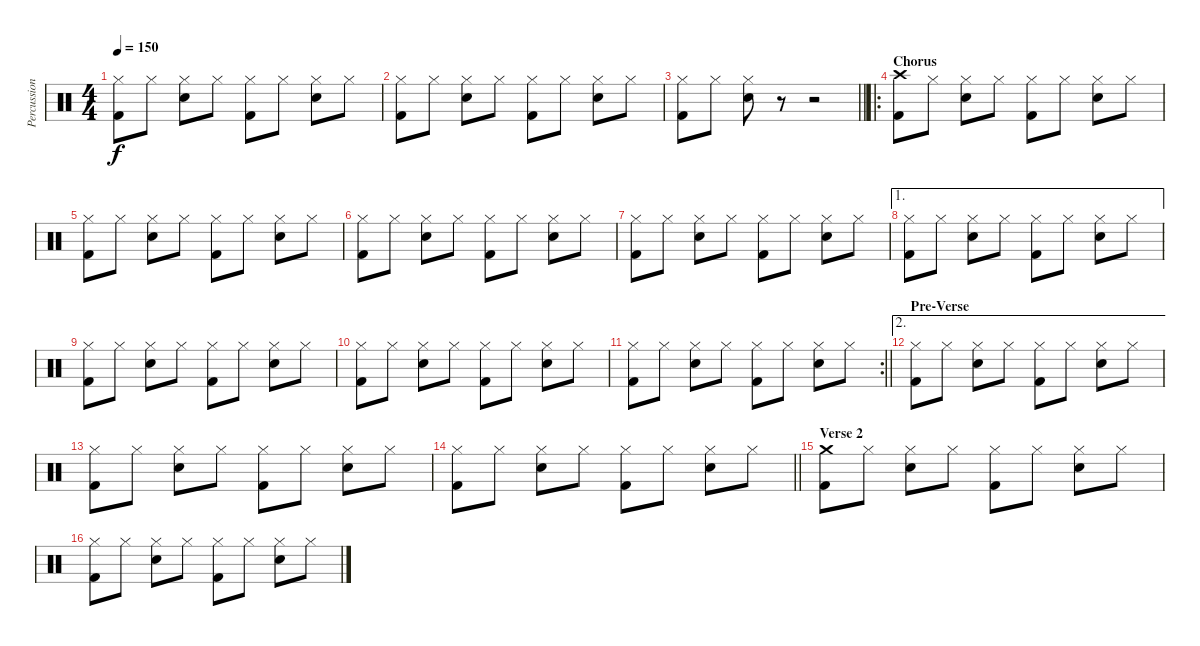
\track ("Percussion" "Percussion") {instrument percussion}
\staff {score}
\articulation defaults
\ts (4 4)
\tempo 150
\clef neutral
\ks c
("Hi-Hat (closed)" "Kick (hit) 2").8{dy f} "Hi-Hat (closed)".8 ("Hi-Hat (closed)" "Snare (hit) 2").8 "Hi-Hat (closed)".8 ("Hi-Hat (closed)" "Kick (hit) 2").8 "Hi-Hat (closed)".8 ("Hi-Hat (closed)" "Snare (hit) 2").8 "Hi-Hat (closed)".8 |
("Hi-Hat (closed)" "Kick (hit) 2").8 "Hi-Hat (closed)".8 ("Hi-Hat (closed)" "Snare (hit) 2").8 "Hi-Hat (closed)".8 ("Hi-Hat (closed)" "Kick (hit) 2").8 "Hi-Hat (closed)".8 ("Hi-Hat (closed)" "Snare (hit) 2").8 "Hi-Hat (closed)".8 |
\barLineRight lightlight
("Hi-Hat (closed)" "Kick (hit) 2").8 "Hi-Hat (closed)".8 ("Hi-Hat (closed)" "Snare (hit) 2").8 r.8 r.2 |
\ro
\section ("" "Chorus")
("Crash high (hit)" "Kick (hit) 2").8 "Hi-Hat (closed)".8 ("Hi-Hat (closed)" "Snare (hit) 2").8 "Hi-Hat (closed)".8 ("Hi-Hat (closed)" "Kick (hit) 2").8 "Hi-Hat (closed)".8 ("Hi-Hat (closed)" "Snare (hit) 2").8 "Hi-Hat (closed)".8 |
("Hi-Hat (closed)" "Kick (hit) 2").8 "Hi-Hat (closed)".8 ("Hi-Hat (closed)" "Snare (hit) 2").8 "Hi-Hat (closed)".8 ("Hi-Hat (closed)" "Kick (hit) 2").8 "Hi-Hat (closed)".8 ("Hi-Hat (closed)" "Snare (hit) 2").8 "Hi-Hat (closed)".8 |
("Hi-Hat (closed)" "Kick (hit) 2").8 "Hi-Hat (closed)".8 ("Hi-Hat (closed)" "Snare (hit) 2").8 "Hi-Hat (closed)".8 ("Hi-Hat (closed)" "Kick (hit) 2").8 "Hi-Hat (closed)".8 ("Hi-Hat (closed)" "Snare (hit) 2").8 "Hi-Hat (closed)".8 |
("Hi-Hat (closed)" "Kick (hit) 2").8 "Hi-Hat (closed)".8 ("Hi-Hat (closed)" "Snare (hit) 2").8 "Hi-Hat (closed)".8 ("Hi-Hat (closed)" "Kick (hit) 2").8 "Hi-Hat (closed)".8 ("Hi-Hat (closed)" "Snare (hit) 2").8 "Hi-Hat (closed)".8 |
\ae 1
("Hi-Hat (closed)" "Kick (hit) 2").8 "Hi-Hat (closed)".8 ("Hi-Hat (closed)" "Snare (hit) 2").8 "Hi-Hat (closed)".8 ("Hi-Hat (closed)" "Kick (hit) 2").8 "Hi-Hat (closed)".8 ("Hi-Hat (closed)" "Snare (hit) 2").8 "Hi-Hat (closed)".8 |
("Hi-Hat (closed)" "Kick (hit) 2").8 "Hi-Hat (closed)".8 ("Hi-Hat (closed)" "Snare (hit) 2").8 "Hi-Hat (closed)".8 ("Hi-Hat (closed)" "Kick (hit) 2").8 "Hi-Hat (closed)".8 ("Hi-Hat (closed)" "Snare (hit) 2").8 "Hi-Hat (closed)".8 |
("Hi-Hat (closed)" "Kick (hit) 2").8 "Hi-Hat (closed)".8 ("Hi-Hat (closed)" "Snare (hit) 2").8 "Hi-Hat (closed)".8 ("Hi-Hat (closed)" "Kick (hit) 2").8 "Hi-Hat (closed)".8 ("Hi-Hat (closed)" "Snare (hit) 2").8 "Hi-Hat (closed)".8 |
\rc 2
\barLineRight lightlight
("Hi-Hat (closed)" "Kick (hit) 2").8 "Hi-Hat (closed)".8 ("Hi-Hat (closed)" "Snare (hit) 2").8 "Hi-Hat (closed)".8 ("Hi-Hat (closed)" "Kick (hit) 2").8 "Hi-Hat (closed)".8 ("Hi-Hat (closed)" "Snare (hit) 2").8 "Hi-Hat (closed)".8 |
\ae 2
\section ("" "Pre-Verse")
("Hi-Hat (closed)" "Kick (hit) 2").8 "Hi-Hat (closed)".8 ("Hi-Hat (closed)" "Snare (hit) 2").8 "Hi-Hat (closed)".8 ("Hi-Hat (closed)" "Kick (hit) 2").8 "Hi-Hat (closed)".8 ("Hi-Hat (closed)" "Snare (hit) 2").8 "Hi-Hat (closed)".8 |
("Hi-Hat (closed)" "Kick (hit) 2").8 "Hi-Hat (closed)".8 ("Hi-Hat (closed)" "Snare (hit) 2").8 "Hi-Hat (closed)".8 ("Hi-Hat (closed)" "Kick (hit) 2").8 "Hi-Hat (closed)".8 ("Hi-Hat (closed)" "Snare (hit) 2").8 "Hi-Hat (closed)".8 |
\barLineRight lightlight
("Hi-Hat (closed)" "Kick (hit) 2").8 "Hi-Hat (closed)".8 ("Hi-Hat (closed)" "Snare (hit) 2").8 "Hi-Hat (closed)".8 ("Hi-Hat (closed)" "Kick (hit) 2").8 "Hi-Hat (closed)".8 ("Hi-Hat (closed)" "Snare (hit) 2").8 "Hi-Hat (closed)".8 |
\section ("" "Verse 2")
("Crash medium (hit)" "Kick (hit) 2").8 "Hi-Hat (closed)".8 ("Hi-Hat (closed)" "Snare (hit) 2").8 "Hi-Hat (closed)".8 ("Hi-Hat (closed)" "Kick (hit) 2").8 "Hi-Hat (closed)".8 ("Hi-Hat (closed)" "Snare (hit) 2").8 "Hi-Hat (closed)".8 |
("Hi-Hat (closed)" "Kick (hit) 2").8 "Hi-Hat (closed)".8 ("Hi-Hat (closed)" "Snare (hit) 2").8 "Hi-Hat (closed)".8 ("Hi-Hat (closed)" "Kick (hit) 2").8 "Hi-Hat (closed)".8 ("Hi-Hat (closed)" "Snare (hit) 2").8 "Hi-Hat (closed)".8
